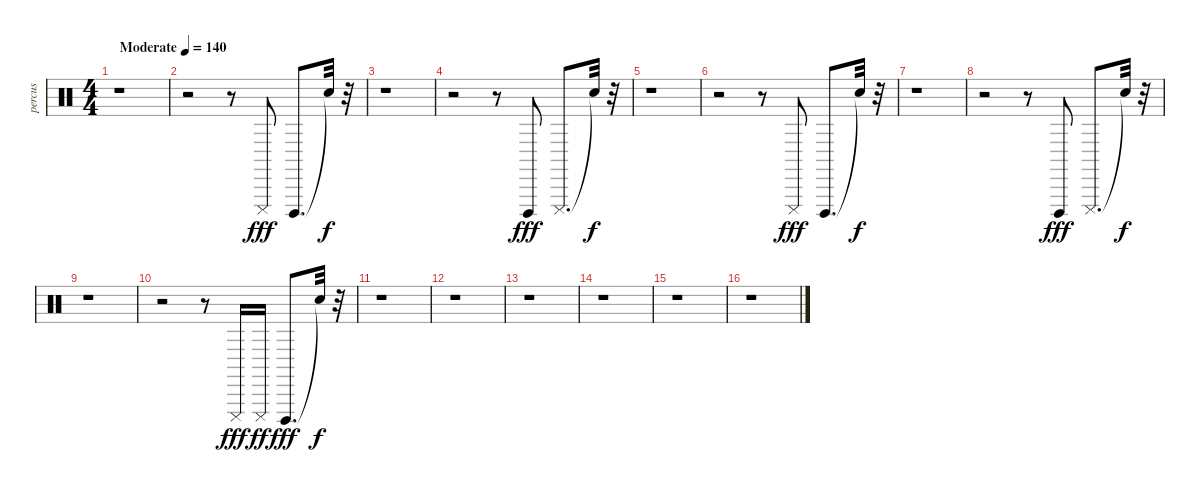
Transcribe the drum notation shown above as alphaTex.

\track ("percus" "percus") {instrument percussion}
\staff {score}
\articulation defaults
\ts (4 4)
\tempo (140 "Moderate")
\clef neutral
\ks c
r.1{dy fff} |
r.2 r.8 "Cuica (mute)".8 "Cuica (open)".8{d} "Snare (hit)"{t}.32{dy f} r.32 |
r.1 |
r.2 r.8 "Cuica (open)".8{dy fff} "Cuica (mute)".8{d} "Snare (hit)"{t}.32{dy f} r.32 |
r.1 |
r.2 r.8 "Cuica (mute)".8{dy fff} "Cuica (open)".8{d} "Snare (hit)"{t}.32{dy f} r.32 |
r.1 |
r.2 r.8 "Cuica (open)".8{dy fff} "Cuica (mute)".8{d} "Snare (hit)"{t}.32{dy f} r.32 |
r.1 |
r.2 r.8 "Cuica (mute)".16{dy fff} "Cuica (mute)".16{dy ff} "Cuica (open)".8{d dy fff} "Snare (hit)"{t}.32{dy f} r.32 |
r.1 |
r.1 |
r.1 |
r.1 |
r.1 |
r.1
